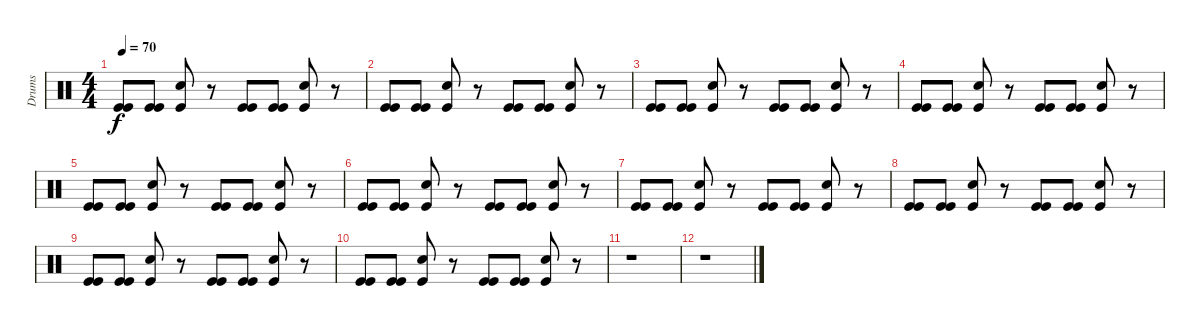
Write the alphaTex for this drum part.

\track ("Drums" "Drums") {instrument percussion}
\staff {score}
\articulation defaults
\ts (4 4)
\tempo 70
\clef neutral
\ks c
("Kick (hit)" "Kick (hit)").8{dy f} ("Kick (hit)" "Kick (hit)").8 ("Snare (hit) 2" "Kick (hit)").8 r.8 ("Kick (hit)" "Kick (hit)").8 ("Kick (hit)" "Kick (hit)").8 ("Snare (hit) 2" "Kick (hit)").8 r.8 |
("Kick (hit)" "Kick (hit)").8 ("Kick (hit)" "Kick (hit)").8 ("Snare (hit) 2" "Kick (hit)").8 r.8 ("Kick (hit)" "Kick (hit)").8 ("Kick (hit)" "Kick (hit)").8 ("Snare (hit) 2" "Kick (hit)").8 r.8 |
("Kick (hit)" "Kick (hit)").8 ("Kick (hit)" "Kick (hit)").8 ("Snare (hit) 2" "Kick (hit)").8 r.8 ("Kick (hit)" "Kick (hit)").8 ("Kick (hit)" "Kick (hit)").8 ("Snare (hit) 2" "Kick (hit)").8 r.8 |
("Kick (hit)" "Kick (hit)").8 ("Kick (hit)" "Kick (hit)").8 ("Snare (hit) 2" "Kick (hit)").8 r.8 ("Kick (hit)" "Kick (hit)").8 ("Kick (hit)" "Kick (hit)").8 ("Snare (hit) 2" "Kick (hit)").8 r.8 |
("Kick (hit)" "Kick (hit)").8 ("Kick (hit)" "Kick (hit)").8 ("Snare (hit) 2" "Kick (hit)").8 r.8 ("Kick (hit)" "Kick (hit)").8 ("Kick (hit)" "Kick (hit)").8 ("Snare (hit) 2" "Kick (hit)").8 r.8 |
("Kick (hit)" "Kick (hit)").8 ("Kick (hit)" "Kick (hit)").8 ("Snare (hit) 2" "Kick (hit)").8 r.8 ("Kick (hit)" "Kick (hit)").8 ("Kick (hit)" "Kick (hit)").8 ("Snare (hit) 2" "Kick (hit)").8 r.8 |
("Kick (hit)" "Kick (hit)").8 ("Kick (hit)" "Kick (hit)").8 ("Snare (hit) 2" "Kick (hit)").8 r.8 ("Kick (hit)" "Kick (hit)").8 ("Kick (hit)" "Kick (hit)").8 ("Snare (hit) 2" "Kick (hit)").8 r.8 |
("Kick (hit)" "Kick (hit)").8 ("Kick (hit)" "Kick (hit)").8 ("Snare (hit) 2" "Kick (hit)").8 r.8 ("Kick (hit)" "Kick (hit)").8 ("Kick (hit)" "Kick (hit)").8 ("Snare (hit) 2" "Kick (hit)").8 r.8 |
("Kick (hit)" "Kick (hit)").8 ("Kick (hit)" "Kick (hit)").8 ("Snare (hit) 2" "Kick (hit)").8 r.8 ("Kick (hit)" "Kick (hit)").8 ("Kick (hit)" "Kick (hit)").8 ("Snare (hit) 2" "Kick (hit)").8 r.8 |
("Kick (hit)" "Kick (hit)").8 ("Kick (hit)" "Kick (hit)").8 ("Snare (hit) 2" "Kick (hit)").8 r.8 ("Kick (hit)" "Kick (hit)").8 ("Kick (hit)" "Kick (hit)").8 ("Snare (hit) 2" "Kick (hit)").8 r.8 |
r.1 |
r.1
